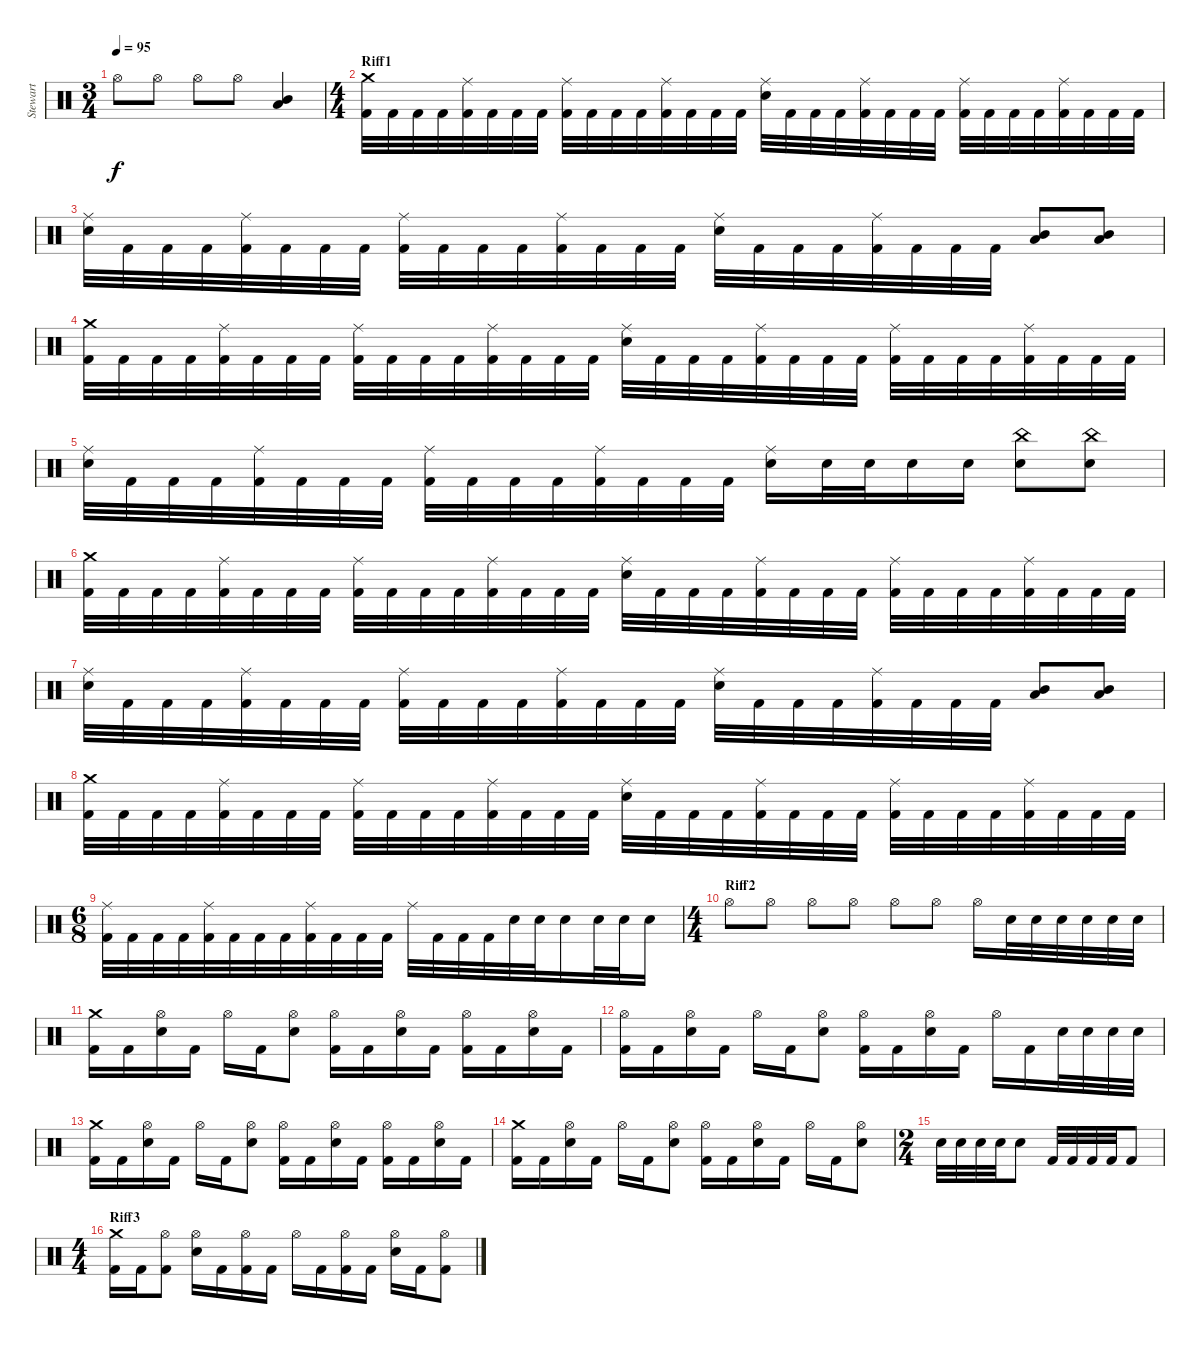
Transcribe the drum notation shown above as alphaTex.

\track ("Stewart" "Stewart") {instrument percussion}
\staff {score}
\articulation defaults
\ts (3 4)
\tempo 95
\clef neutral
\ks c "Hi-Hat (open)".8{dy f} "Hi-Hat (open)".8 "Hi-Hat (open)".8 "Hi-Hat (open)".8
("Mid Tom (hit)" "Low Tom (hit)").4 |
\ts (4 4)
\section ("" "Riff1")
("Crash medium (hit)" "Kick (hit) 2").32 "Kick (hit) 2".32 "Kick (hit) 2".32 "Kick (hit) 2".32 ("Ride (middle)" "Kick (hit) 2").32 "Kick (hit) 2".32 "Kick (hit) 2".32 "Kick (hit) 2".32 ("Ride (middle)" "Kick (hit) 2").32 "Kick (hit) 2".32 "Kick (hit) 2".32 "Kick (hit) 2".32 ("Ride (middle)" "Kick (hit) 2").32 "Kick (hit) 2".32 "Kick (hit) 2".32 "Kick (hit) 2".32 ("Ride (middle)" "Electric Snare (hit)").32 "Kick (hit) 2".32 "Kick (hit) 2".32 "Kick (hit) 2".32 ("Ride (middle)" "Kick (hit) 2").32 "Kick (hit) 2".32 "Kick (hit) 2".32 "Kick (hit) 2".32 ("Ride (middle)" "Kick (hit) 2").32 "Kick (hit) 2".32 "Kick (hit) 2".32 "Kick (hit) 2".32 ("Ride (middle)" "Kick (hit) 2").32 "Kick (hit) 2".32 "Kick (hit) 2".32 "Kick (hit) 2".32 |
("Ride (middle)" "Electric Snare (hit)").32 "Kick (hit) 2".32 "Kick (hit) 2".32 "Kick (hit) 2".32 ("Ride (middle)" "Kick (hit) 2").32 "Kick (hit) 2".32 "Kick (hit) 2".32 "Kick (hit) 2".32 ("Ride (middle)" "Kick (hit) 2").32 "Kick (hit) 2".32 "Kick (hit) 2".32 "Kick (hit) 2".32 ("Ride (middle)" "Kick (hit) 2").32 "Kick (hit) 2".32 "Kick (hit) 2".32 "Kick (hit) 2".32 ("Ride (middle)" "Electric Snare (hit)").32 "Kick (hit) 2".32 "Kick (hit) 2".32 "Kick (hit) 2".32 ("Ride (middle)" "Kick (hit) 2").32 "Kick (hit) 2".32 "Kick (hit) 2".32 "Kick (hit) 2".32 ("Mid Tom (hit)" "Low Tom (hit)").8 ("Mid Tom (hit)" "Low Tom (hit)").8 |
("Crash medium (hit)" "Kick (hit) 2").32 "Kick (hit) 2".32 "Kick (hit) 2".32 "Kick (hit) 2".32 ("Ride (middle)" "Kick (hit) 2").32 "Kick (hit) 2".32 "Kick (hit) 2".32 "Kick (hit) 2".32 ("Ride (middle)" "Kick (hit) 2").32 "Kick (hit) 2".32 "Kick (hit) 2".32 "Kick (hit) 2".32 ("Ride (middle)" "Kick (hit) 2").32 "Kick (hit) 2".32 "Kick (hit) 2".32 "Kick (hit) 2".32 ("Ride (middle)" "Electric Snare (hit)").32 "Kick (hit) 2".32 "Kick (hit) 2".32 "Kick (hit) 2".32 ("Ride (middle)" "Kick (hit) 2").32 "Kick (hit) 2".32 "Kick (hit) 2".32 "Kick (hit) 2".32 ("Ride (middle)" "Kick (hit) 2").32 "Kick (hit) 2".32 "Kick (hit) 2".32 "Kick (hit) 2".32 ("Ride (middle)" "Kick (hit) 2").32 "Kick (hit) 2".32 "Kick (hit) 2".32 "Kick (hit) 2".32 |
("Ride (middle)" "Electric Snare (hit)").32 "Kick (hit) 2".32 "Kick (hit) 2".32 "Kick (hit) 2".32 ("Ride (middle)" "Kick (hit) 2").32 "Kick (hit) 2".32 "Kick (hit) 2".32 "Kick (hit) 2".32 ("Ride (middle)" "Kick (hit) 2").32 "Kick (hit) 2".32 "Kick (hit) 2".32 "Kick (hit) 2".32 ("Ride (middle)" "Kick (hit) 2").32 "Kick (hit) 2".32 "Kick (hit) 2".32 "Kick (hit) 2".32 ("Ride (middle)" "Electric Snare (hit)").16 "Electric Snare (hit)".32 "Electric Snare (hit)".32 "Electric Snare (hit)".16 "Electric Snare (hit)".16 ("China (hit)" "Electric Snare (hit)").8 ("China (hit)" "Electric Snare (hit)").8 |
("Crash medium (hit)" "Kick (hit) 2").32 "Kick (hit) 2".32 "Kick (hit) 2".32 "Kick (hit) 2".32 ("Ride (middle)" "Kick (hit) 2").32 "Kick (hit) 2".32 "Kick (hit) 2".32 "Kick (hit) 2".32 ("Ride (middle)" "Kick (hit) 2").32 "Kick (hit) 2".32 "Kick (hit) 2".32 "Kick (hit) 2".32 ("Ride (middle)" "Kick (hit) 2").32 "Kick (hit) 2".32 "Kick (hit) 2".32 "Kick (hit) 2".32 ("Ride (middle)" "Electric Snare (hit)").32 "Kick (hit) 2".32 "Kick (hit) 2".32 "Kick (hit) 2".32 ("Ride (middle)" "Kick (hit) 2").32 "Kick (hit) 2".32 "Kick (hit) 2".32 "Kick (hit) 2".32 ("Ride (middle)" "Kick (hit) 2").32 "Kick (hit) 2".32 "Kick (hit) 2".32 "Kick (hit) 2".32 ("Ride (middle)" "Kick (hit) 2").32 "Kick (hit) 2".32 "Kick (hit) 2".32 "Kick (hit) 2".32 |
("Ride (middle)" "Electric Snare (hit)").32 "Kick (hit) 2".32 "Kick (hit) 2".32 "Kick (hit) 2".32 ("Ride (middle)" "Kick (hit) 2").32 "Kick (hit) 2".32 "Kick (hit) 2".32 "Kick (hit) 2".32 ("Ride (middle)" "Kick (hit) 2").32 "Kick (hit) 2".32 "Kick (hit) 2".32 "Kick (hit) 2".32 ("Ride (middle)" "Kick (hit) 2").32 "Kick (hit) 2".32 "Kick (hit) 2".32 "Kick (hit) 2".32 ("Ride (middle)" "Electric Snare (hit)").32 "Kick (hit) 2".32 "Kick (hit) 2".32 "Kick (hit) 2".32 ("Ride (middle)" "Kick (hit) 2").32 "Kick (hit) 2".32 "Kick (hit) 2".32 "Kick (hit) 2".32 ("Mid Tom (hit)" "Low Tom (hit)").8 ("Mid Tom (hit)" "Low Tom (hit)").8 |
("Crash medium (hit)" "Kick (hit) 2").32 "Kick (hit) 2".32 "Kick (hit) 2".32 "Kick (hit) 2".32 ("Ride (middle)" "Kick (hit) 2").32 "Kick (hit) 2".32 "Kick (hit) 2".32 "Kick (hit) 2".32 ("Ride (middle)" "Kick (hit) 2").32 "Kick (hit) 2".32 "Kick (hit) 2".32 "Kick (hit) 2".32 ("Ride (middle)" "Kick (hit) 2").32 "Kick (hit) 2".32 "Kick (hit) 2".32 "Kick (hit) 2".32 ("Ride (middle)" "Electric Snare (hit)").32 "Kick (hit) 2".32 "Kick (hit) 2".32 "Kick (hit) 2".32 ("Ride (middle)" "Kick (hit) 2").32 "Kick (hit) 2".32 "Kick (hit) 2".32 "Kick (hit) 2".32 ("Ride (middle)" "Kick (hit) 2").32 "Kick (hit) 2".32 "Kick (hit) 2".32 "Kick (hit) 2".32 ("Ride (middle)" "Kick (hit) 2").32 "Kick (hit) 2".32 "Kick (hit) 2".32 "Kick (hit) 2".32 |
\ts (6 8)
("Ride (middle)" "Kick (hit) 2").32 "Kick (hit) 2".32 "Kick (hit) 2".32 "Kick (hit) 2".32 ("Ride (middle)" "Kick (hit) 2").32 "Kick (hit) 2".32 "Kick (hit) 2".32 "Kick (hit) 2".32 ("Ride (middle)" "Kick (hit) 2").32 "Kick (hit) 2".32 "Kick (hit) 2".32 "Kick (hit) 2".32 "Ride (middle)".32 "Kick (hit) 2".32 "Kick (hit) 2".32 "Kick (hit) 2".32 "Electric Snare (hit)".32 "Electric Snare (hit)".32 "Electric Snare (hit)".16 "Electric Snare (hit)".32 "Electric Snare (hit)".32 "Electric Snare (hit)".16 |
\ts (4 4)
\section ("" "Riff2")
"Hi-Hat (open)".8 "Hi-Hat (open)".8 "Hi-Hat (open)".8 "Hi-Hat (open)".8 "Hi-Hat (open)".8 "Hi-Hat (open)".8 "Hi-Hat (open)".16 "Electric Snare (hit)".32 "Electric Snare (hit)".32 "Electric Snare (hit)".32 "Electric Snare (hit)".32 "Electric Snare (hit)".32 "Electric Snare (hit)".32 |
("Crash medium (hit)" "Kick (hit) 2").16 "Kick (hit) 2".16 ("Hi-Hat (open)" "Electric Snare (hit)").16 "Kick (hit) 2".16 "Hi-Hat (open)".16 "Kick (hit) 2".16 ("Hi-Hat (open)" "Electric Snare (hit)").8 ("Hi-Hat (open)" "Kick (hit) 2").16 "Kick (hit) 2".16 ("Hi-Hat (open)" "Electric Snare (hit)").16 "Kick (hit) 2".16 ("Hi-Hat (open)" "Kick (hit) 2").16 "Kick (hit) 2".16 ("Hi-Hat (open)" "Electric Snare (hit)").16 "Kick (hit) 2".16 |
("Hi-Hat (open)" "Kick (hit) 2").16 "Kick (hit) 2".16 ("Hi-Hat (open)" "Electric Snare (hit)").16 "Kick (hit) 2".16 "Hi-Hat (open)".16 "Kick (hit) 2".16 ("Hi-Hat (open)" "Electric Snare (hit)").8 ("Hi-Hat (open)" "Kick (hit) 2").16 "Kick (hit) 2".16 ("Hi-Hat (open)" "Electric Snare (hit)").16 "Kick (hit) 2".16 "Hi-Hat (open)".16 "Kick (hit) 2".16 "Electric Snare (hit)".32 "Electric Snare (hit)".32 "Electric Snare (hit)".32 "Electric Snare (hit)".32 |
("Crash medium (hit)" "Kick (hit) 2").16 "Kick (hit) 2".16 ("Hi-Hat (open)" "Electric Snare (hit)").16 "Kick (hit) 2".16 "Hi-Hat (open)".16 "Kick (hit) 2".16 ("Hi-Hat (open)" "Electric Snare (hit)").8 ("Hi-Hat (open)" "Kick (hit) 2").16 "Kick (hit) 2".16 ("Hi-Hat (open)" "Electric Snare (hit)").16 "Kick (hit) 2".16 ("Hi-Hat (open)" "Kick (hit) 2").16 "Kick (hit) 2".16 ("Hi-Hat (open)" "Electric Snare (hit)").16 "Kick (hit) 2".16 |
("Crash medium (hit)" "Kick (hit) 2").16 "Kick (hit) 2".16 ("Hi-Hat (open)" "Electric Snare (hit)").16 "Kick (hit) 2".16 "Hi-Hat (open)".16 "Kick (hit) 2".16 ("Hi-Hat (open)" "Electric Snare (hit)").8 ("Hi-Hat (open)" "Kick (hit) 2").16 "Kick (hit) 2".16 ("Hi-Hat (open)" "Electric Snare (hit)").16 "Kick (hit) 2".16 "Hi-Hat (open)".16 "Kick (hit) 2".16 ("Hi-Hat (open)" "Electric Snare (hit)").8 |
\ts (2 4)
"Electric Snare (hit)".32 "Electric Snare (hit)".32 "Electric Snare (hit)".32 "Electric Snare (hit)".32 "Electric Snare (hit)".8 "Kick (hit) 2".32 "Kick (hit) 2".32 "Kick (hit) 2".32 "Kick (hit) 2".32 "Kick (hit) 2".8 |
\ts (4 4)
\section ("" "Riff3")
("Crash medium (hit)" "Kick (hit) 2").16 "Kick (hit) 2".16 ("Hi-Hat (open)" "Kick (hit) 2").8 ("Hi-Hat (open)" "Electric Snare (hit)").16 "Kick (hit) 2".16 ("Hi-Hat (open)" "Kick (hit) 2").16 "Kick (hit) 2".16 "Hi-Hat (open)".16 "Kick (hit) 2".16 ("Hi-Hat (open)" "Kick (hit) 2").16 "Kick (hit) 2".16 ("Hi-Hat (open)" "Electric Snare (hit)").16 "Kick (hit) 2".16 ("Hi-Hat (open)" "Kick (hit) 2").8
